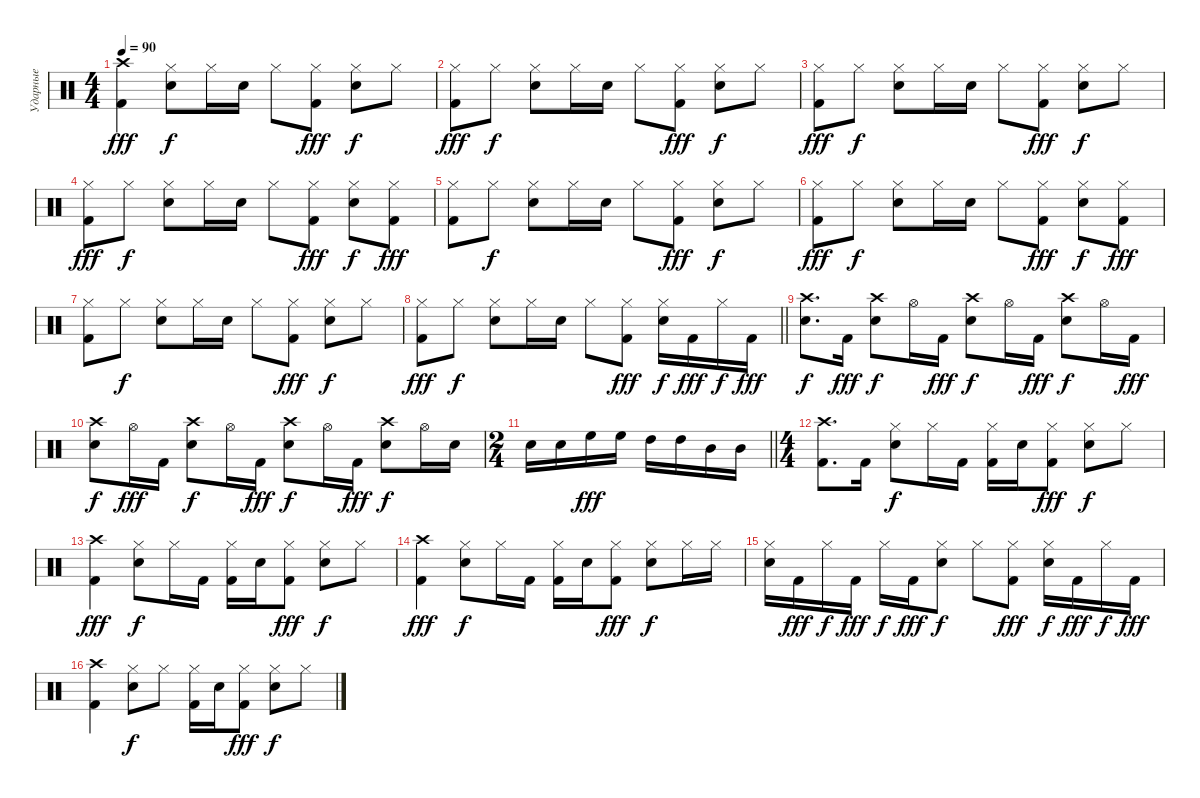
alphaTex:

\track ("Ударные" "Ударные") {instrument percussion}
\staff {score}
\articulation defaults
\ts (4 4)
\tempo 90
\clef neutral
\ks c
("Kick (hit) 2" "Crash high (hit)").4{dy fff} ("Snare (hit) 2" "Hi-Hat (closed)").8{dy f} "Hi-Hat (closed)".16 "Snare (hit) 2".16 "Hi-Hat (closed)".8 ("Kick (hit) 2" "Hi-Hat (closed)").8{dy fff} ("Snare (hit) 2" "Hi-Hat (closed)").8{dy f} "Hi-Hat (closed)".8 |
("Kick (hit) 2" "Hi-Hat (closed)").8{dy fff} "Hi-Hat (closed)".8{dy f} ("Snare (hit) 2" "Hi-Hat (closed)").8 "Hi-Hat (closed)".16 "Snare (hit) 2".16 "Hi-Hat (closed)".8 ("Kick (hit) 2" "Hi-Hat (closed)").8{dy fff} ("Snare (hit) 2" "Hi-Hat (closed)").8{dy f} "Hi-Hat (closed)".8 |
("Kick (hit) 2" "Hi-Hat (closed)").8{dy fff} "Hi-Hat (closed)".8{dy f} ("Snare (hit) 2" "Hi-Hat (closed)").8 "Hi-Hat (closed)".16 "Snare (hit) 2".16 "Hi-Hat (closed)".8 ("Kick (hit) 2" "Hi-Hat (closed)").8{dy fff} ("Snare (hit) 2" "Hi-Hat (closed)").8{dy f} "Hi-Hat (closed)".8 |
("Kick (hit) 2" "Hi-Hat (closed)").8{dy fff} "Hi-Hat (closed)".8{dy f} ("Snare (hit) 2" "Hi-Hat (closed)").8 "Hi-Hat (closed)".16 "Snare (hit) 2".16 "Hi-Hat (closed)".8 ("Kick (hit) 2" "Hi-Hat (closed)").8{dy fff} ("Snare (hit) 2" "Hi-Hat (closed)").8{dy f} ("Kick (hit) 2" "Hi-Hat (closed)").8{dy fff} |
("Kick (hit) 2" "Hi-Hat (closed)").8 "Hi-Hat (closed)".8{dy f} ("Snare (hit) 2" "Hi-Hat (closed)").8 "Hi-Hat (closed)".16 "Snare (hit) 2".16 "Hi-Hat (closed)".8 ("Kick (hit) 2" "Hi-Hat (closed)").8{dy fff} ("Snare (hit) 2" "Hi-Hat (closed)").8{dy f} "Hi-Hat (closed)".8 |
("Kick (hit) 2" "Hi-Hat (closed)").8{dy fff} "Hi-Hat (closed)".8{dy f} ("Snare (hit) 2" "Hi-Hat (closed)").8 "Hi-Hat (closed)".16 "Snare (hit) 2".16 "Hi-Hat (closed)".8 ("Kick (hit) 2" "Hi-Hat (closed)").8{dy fff} ("Snare (hit) 2" "Hi-Hat (closed)").8{dy f} ("Kick (hit) 2" "Hi-Hat (closed)").8{dy fff} |
("Kick (hit) 2" "Hi-Hat (closed)").8 "Hi-Hat (closed)".8{dy f} ("Snare (hit) 2" "Hi-Hat (closed)").8 "Hi-Hat (closed)".16 "Snare (hit) 2".16 "Hi-Hat (closed)".8 ("Kick (hit) 2" "Hi-Hat (closed)").8{dy fff} ("Snare (hit) 2" "Hi-Hat (closed)").8{dy f} "Hi-Hat (closed)".8 |
\barLineRight lightlight
("Kick (hit) 2" "Hi-Hat (closed)").8{dy fff} "Hi-Hat (closed)".8{dy f} ("Snare (hit) 2" "Hi-Hat (closed)").8 "Hi-Hat (closed)".16 "Snare (hit) 2".16 "Hi-Hat (closed)".8 ("Kick (hit) 2" "Hi-Hat (closed)").8{dy fff} ("Snare (hit) 2" "Hi-Hat (closed)").16{dy f} "Kick (hit) 2".16{dy fff} "Hi-Hat (closed)".16{dy f} "Kick (hit) 2".16{dy fff} |
("Snare (hit) 2" "Crash high (hit)").8{d dy f} "Kick (hit) 2".16{dy fff} ("Snare (hit) 2" "Crash high (hit)").8{dy f} "Hi-Hat (open)".16 "Kick (hit) 2".16{dy fff} ("Snare (hit) 2" "Crash high (hit)").8{dy f} "Hi-Hat (open)".16 "Kick (hit) 2".16{dy fff} ("Snare (hit) 2" "Crash high (hit)").8{dy f} "Hi-Hat (open)".16 "Kick (hit) 2".16{dy fff} |
("Snare (hit) 2" "Crash high (hit)").8{dy f} "Hi-Hat (open)".16{dy fff} "Kick (hit) 2".16 ("Snare (hit) 2" "Crash high (hit)").8{dy f} "Hi-Hat (open)".16 "Kick (hit) 2".16{dy fff} ("Snare (hit) 2" "Crash high (hit)").8{dy f} "Hi-Hat (open)".16 "Kick (hit) 2".16{dy fff} ("Snare (hit) 2" "Crash high (hit)").8{dy f} "Hi-Hat (open)".16 "Snare (hit) 2".16 |
\ts (2 4)
\barLineRight lightlight "Snare (hit) 2".16 "Snare (hit) 2".16 "High Floor Tom (hit)".16{dy fff} "High Floor Tom (hit)".16 "High Tom (hit)".16 "High Tom (hit)".16 "Mid Tom (hit)".16 "Mid Tom (hit)".16
|
\ts (4 4)
("Kick (hit) 2" "Crash high (hit)").8{d} "Kick (hit) 2".16 ("Snare (hit) 2" "Hi-Hat (closed)").8{dy f} "Hi-Hat (closed)".16 "Kick (hit) 2".16 ("Kick (hit) 2" "Hi-Hat (closed)").16 "Snare (hit) 2".16 ("Kick (hit) 2" "Hi-Hat (closed)").8{dy fff} ("Snare (hit) 2" "Hi-Hat (closed)").8{dy f} "Hi-Hat (closed)".8 |
("Kick (hit) 2" "Crash high (hit)").4{dy fff} ("Snare (hit) 2" "Hi-Hat (closed)").8{dy f} "Hi-Hat (closed)".16 "Kick (hit) 2".16 ("Kick (hit) 2" "Hi-Hat (closed)").16 "Snare (hit) 2".16 ("Kick (hit) 2" "Hi-Hat (closed)").8{dy fff} ("Snare (hit) 2" "Hi-Hat (closed)").8{dy f} "Hi-Hat (closed)".8 |
("Kick (hit) 2" "Crash high (hit)").4{dy fff} ("Snare (hit) 2" "Hi-Hat (closed)").8{dy f} "Hi-Hat (closed)".16 "Kick (hit) 2".16 ("Kick (hit) 2" "Hi-Hat (closed)").16 "Snare (hit) 2".16 ("Kick (hit) 2" "Hi-Hat (closed)").8{dy fff} ("Snare (hit) 2" "Hi-Hat (closed)").8{dy f} "Hi-Hat (closed)".16 "Hi-Hat (closed)".16 |
("Snare (hit) 2" "Hi-Hat (closed)").16 "Kick (hit) 2".16{dy fff} "Hi-Hat (closed)".16{dy f} "Kick (hit) 2".16{dy fff} "Hi-Hat (closed)".16{dy f} "Kick (hit) 2".16{dy fff} ("Snare (hit) 2" "Hi-Hat (closed)").8{dy f} "Hi-Hat (closed)".8 ("Kick (hit) 2" "Hi-Hat (closed)").8{dy fff} ("Snare (hit) 2" "Hi-Hat (closed)").16{dy f} "Kick (hit) 2".16{dy fff} "Hi-Hat (closed)".16{dy f} "Kick (hit) 2".16{dy fff} |
("Kick (hit) 2" "Crash high (hit)").4 ("Snare (hit) 2" "Hi-Hat (closed)").8{dy f} "Hi-Hat (closed)".8 ("Kick (hit) 2" "Hi-Hat (closed)").16 "Snare (hit) 2".16 ("Kick (hit) 2" "Hi-Hat (closed)").8{dy fff} ("Snare (hit) 2" "Hi-Hat (closed)").8{dy f} "Hi-Hat (closed)".8
